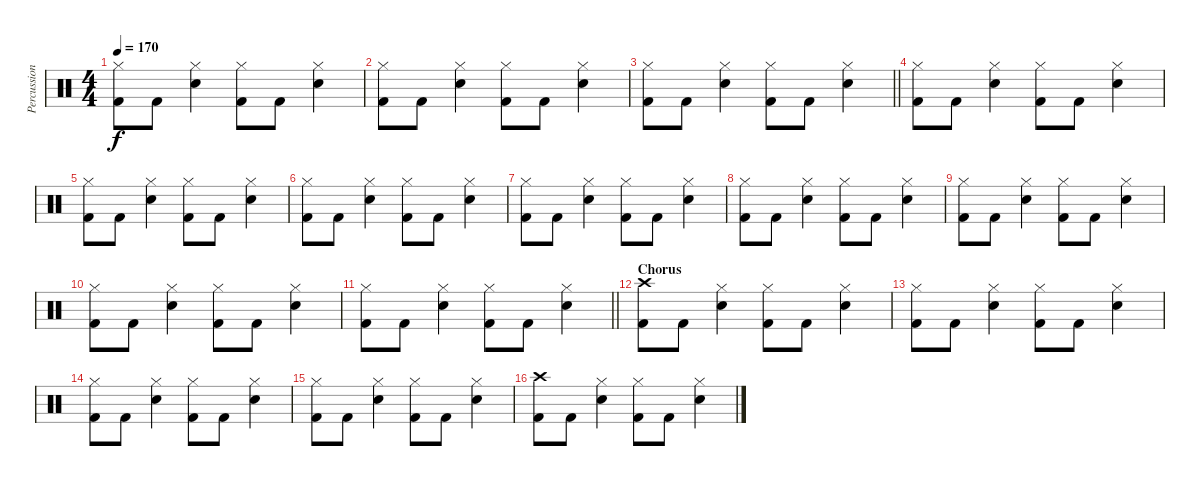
\track ("Percussion" "Percussion") {instrument percussion}
\staff {score}
\articulation defaults
\ts (4 4)
\tempo 170
\clef neutral
\ks c
("Hi-Hat (closed)" "Kick (hit) 2").8{dy f} "Kick (hit) 2".8 ("Hi-Hat (closed)" "Electric Snare (hit)").4 ("Hi-Hat (closed)" "Kick (hit) 2").8 "Kick (hit) 2".8 ("Hi-Hat (closed)" "Electric Snare (hit)").4 |
("Hi-Hat (closed)" "Kick (hit) 2").8 "Kick (hit) 2".8 ("Hi-Hat (closed)" "Electric Snare (hit)").4 ("Hi-Hat (closed)" "Kick (hit) 2").8 "Kick (hit) 2".8 ("Hi-Hat (closed)" "Electric Snare (hit)").4 |
\barLineRight lightlight
("Hi-Hat (closed)" "Kick (hit) 2").8 "Kick (hit) 2".8 ("Hi-Hat (closed)" "Electric Snare (hit)").4 ("Hi-Hat (closed)" "Kick (hit) 2").8 "Kick (hit) 2".8 ("Hi-Hat (closed)" "Electric Snare (hit)").4 |
("Hi-Hat (closed)" "Kick (hit) 2").8 "Kick (hit) 2".8 ("Hi-Hat (closed)" "Electric Snare (hit)").4 ("Hi-Hat (closed)" "Kick (hit) 2").8 "Kick (hit) 2".8 ("Hi-Hat (closed)" "Electric Snare (hit)").4 |
("Hi-Hat (closed)" "Kick (hit) 2").8 "Kick (hit) 2".8 ("Hi-Hat (closed)" "Electric Snare (hit)").4 ("Hi-Hat (closed)" "Kick (hit) 2").8 "Kick (hit) 2".8 ("Hi-Hat (closed)" "Electric Snare (hit)").4 |
("Hi-Hat (closed)" "Kick (hit) 2").8 "Kick (hit) 2".8 ("Hi-Hat (closed)" "Electric Snare (hit)").4 ("Hi-Hat (closed)" "Kick (hit) 2").8 "Kick (hit) 2".8 ("Hi-Hat (closed)" "Electric Snare (hit)").4 |
("Hi-Hat (closed)" "Kick (hit) 2").8 "Kick (hit) 2".8 ("Hi-Hat (closed)" "Electric Snare (hit)").4 ("Hi-Hat (closed)" "Kick (hit) 2").8 "Kick (hit) 2".8 ("Hi-Hat (closed)" "Electric Snare (hit)").4 |
("Hi-Hat (closed)" "Kick (hit) 2").8 "Kick (hit) 2".8 ("Hi-Hat (closed)" "Electric Snare (hit)").4 ("Hi-Hat (closed)" "Kick (hit) 2").8 "Kick (hit) 2".8 ("Hi-Hat (closed)" "Electric Snare (hit)").4 |
("Hi-Hat (closed)" "Kick (hit) 2").8 "Kick (hit) 2".8 ("Hi-Hat (closed)" "Electric Snare (hit)").4 ("Hi-Hat (closed)" "Kick (hit) 2").8 "Kick (hit) 2".8 ("Hi-Hat (closed)" "Electric Snare (hit)").4 |
("Hi-Hat (closed)" "Kick (hit) 2").8 "Kick (hit) 2".8 ("Hi-Hat (closed)" "Electric Snare (hit)").4 ("Hi-Hat (closed)" "Kick (hit) 2").8 "Kick (hit) 2".8 ("Hi-Hat (closed)" "Electric Snare (hit)").4 |
\barLineRight lightlight
("Hi-Hat (closed)" "Kick (hit) 2").8 "Kick (hit) 2".8 ("Hi-Hat (closed)" "Electric Snare (hit)").4 ("Hi-Hat (closed)" "Kick (hit) 2").8 "Kick (hit) 2".8 ("Hi-Hat (closed)" "Electric Snare (hit)").4 |
\section ("" "Chorus")
("Crash high (hit)" "Kick (hit) 2").8 "Kick (hit) 2".8 ("Hi-Hat (closed)" "Electric Snare (hit)").4 ("Hi-Hat (closed)" "Kick (hit) 2").8 "Kick (hit) 2".8 ("Hi-Hat (closed)" "Electric Snare (hit)").4 |
("Hi-Hat (closed)" "Kick (hit) 2").8 "Kick (hit) 2".8 ("Hi-Hat (closed)" "Electric Snare (hit)").4 ("Hi-Hat (closed)" "Kick (hit) 2").8 "Kick (hit) 2".8 ("Hi-Hat (closed)" "Electric Snare (hit)").4 |
("Hi-Hat (closed)" "Kick (hit) 2").8 "Kick (hit) 2".8 ("Hi-Hat (closed)" "Electric Snare (hit)").4 ("Hi-Hat (closed)" "Kick (hit) 2").8 "Kick (hit) 2".8 ("Hi-Hat (closed)" "Electric Snare (hit)").4 |
("Hi-Hat (closed)" "Kick (hit) 2").8 "Kick (hit) 2".8 ("Hi-Hat (closed)" "Electric Snare (hit)").4 ("Hi-Hat (closed)" "Kick (hit) 2").8 "Kick (hit) 2".8 ("Hi-Hat (closed)" "Electric Snare (hit)").4 |
("Crash high (hit)" "Kick (hit) 2").8 "Kick (hit) 2".8 ("Hi-Hat (closed)" "Electric Snare (hit)").4 ("Hi-Hat (closed)" "Kick (hit) 2").8 "Kick (hit) 2".8 ("Hi-Hat (closed)" "Electric Snare (hit)").4
